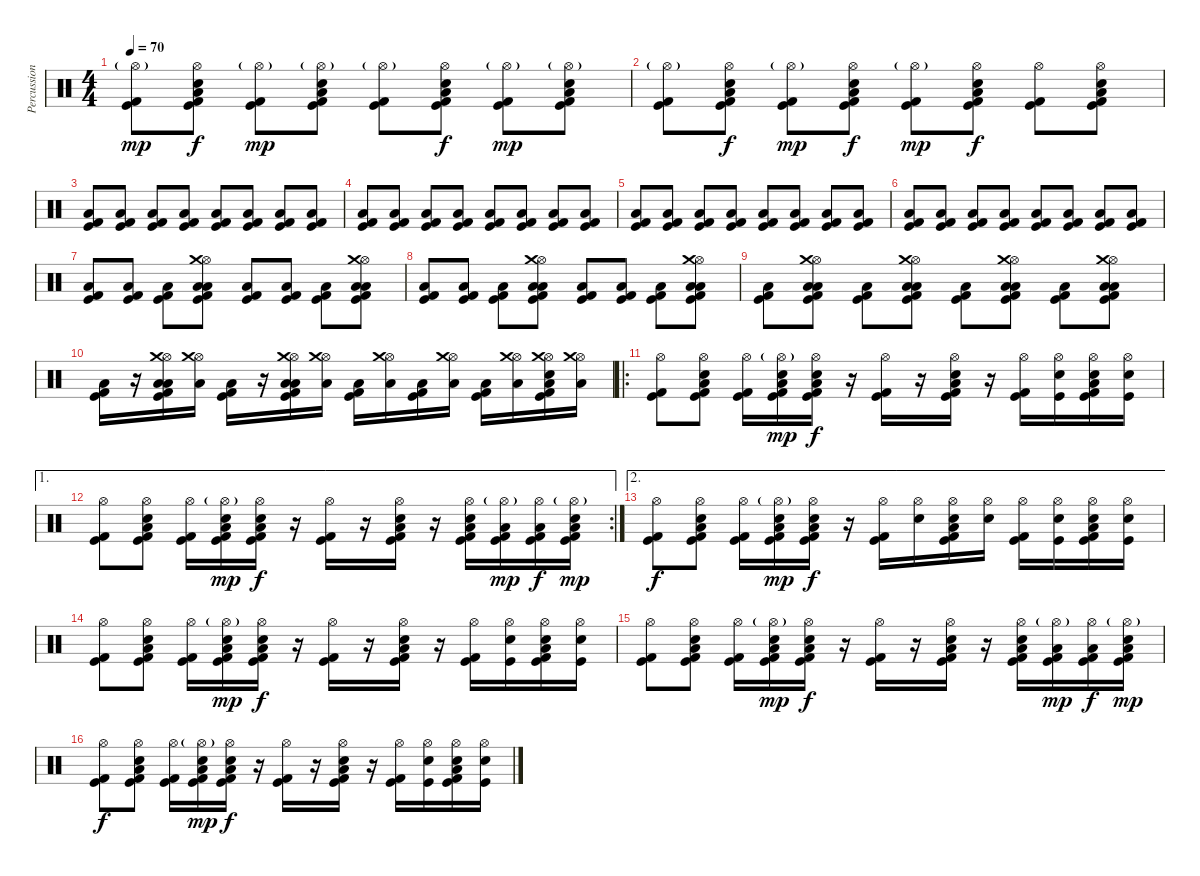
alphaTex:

\track ("Percussion" "Percussion") {instrument percussion}
\staff {score}
\articulation defaults
\ts (4 4)
\tempo 70
\clef neutral
\ks c
("Hi-Hat (open)"{g} "Kick (hit)" "Kick (hit) 2").8{dy mp} ("Hi-Hat (open)" "Snare (hit) 2" "Low Floor Tom (hit)" "Kick (hit)" "Kick (hit) 2").8{dy f} ("Hi-Hat (open)"{g} "Kick (hit)" "Kick (hit) 2").8{dy mp} ("Hi-Hat (open)"{g} "Snare (hit) 2" "Low Floor Tom (hit)" "Kick (hit)" "Kick (hit) 2").8 ("Hi-Hat (open)"{g} "Kick (hit)" "Kick (hit) 2").8 ("Hi-Hat (open)" "Snare (hit) 2" "Low Floor Tom (hit)" "Kick (hit)" "Kick (hit) 2").8{dy f} ("Hi-Hat (open)"{g} "Kick (hit)" "Kick (hit) 2").8{dy mp} ("Hi-Hat (open)"{g} "Snare (hit) 2" "Low Floor Tom (hit)" "Kick (hit)" "Kick (hit) 2").8 |
("Hi-Hat (open)"{g} "Kick (hit)" "Kick (hit) 2").8 ("Hi-Hat (open)" "Snare (hit) 2" "Low Floor Tom (hit)" "Kick (hit)" "Kick (hit) 2").8{dy f} ("Hi-Hat (open)"{g} "Kick (hit)" "Kick (hit) 2").8{dy mp} ("Hi-Hat (open)" "Snare (hit) 2" "Low Floor Tom (hit)" "Kick (hit)" "Kick (hit) 2").8{dy f} ("Hi-Hat (open)"{g} "Kick (hit)" "Kick (hit) 2").8{dy mp} ("Hi-Hat (open)" "Snare (hit) 2" "Low Floor Tom (hit)" "Kick (hit)" "Kick (hit) 2").8{dy f} ("Hi-Hat (open)" "Kick (hit)" "Kick (hit) 2").8 ("Hi-Hat (open)" "Snare (hit) 2" "Low Floor Tom (hit)" "Kick (hit)" "Kick (hit) 2").8 |
("Low Floor Tom (hit)" "Kick (hit)" "Kick (hit) 2").8 ("Low Floor Tom (hit)" "Kick (hit)" "Kick (hit) 2").8 ("Low Floor Tom (hit)" "Kick (hit)" "Kick (hit) 2").8 ("Low Floor Tom (hit)" "Kick (hit)" "Kick (hit) 2").8 ("Low Floor Tom (hit)" "Kick (hit)" "Kick (hit) 2").8 ("Low Floor Tom (hit)" "Kick (hit)" "Kick (hit) 2").8 ("Low Floor Tom (hit)" "Kick (hit)" "Kick (hit) 2").8 ("Low Floor Tom (hit)" "Kick (hit)" "Kick (hit) 2").8 |
("Low Floor Tom (hit)" "Kick (hit)" "Kick (hit) 2").8 ("Low Floor Tom (hit)" "Kick (hit)" "Kick (hit) 2").8 ("Low Floor Tom (hit)" "Kick (hit)" "Kick (hit) 2").8 ("Low Floor Tom (hit)" "Kick (hit)" "Kick (hit) 2").8 ("Low Floor Tom (hit)" "Kick (hit)" "Kick (hit) 2").8 ("Low Floor Tom (hit)" "Kick (hit)" "Kick (hit) 2").8 ("Low Floor Tom (hit)" "Kick (hit)" "Kick (hit) 2").8 ("Low Floor Tom (hit)" "Kick (hit)" "Kick (hit) 2").8 |
("Low Floor Tom (hit)" "Kick (hit)" "Kick (hit) 2").8 ("Low Floor Tom (hit)" "Kick (hit)" "Kick (hit) 2").8 ("Low Floor Tom (hit)" "Kick (hit)" "Kick (hit) 2").8 ("Low Floor Tom (hit)" "Kick (hit)" "Kick (hit) 2").8 ("Low Floor Tom (hit)" "Kick (hit)" "Kick (hit) 2").8 ("Low Floor Tom (hit)" "Kick (hit)" "Kick (hit) 2").8 ("Low Floor Tom (hit)" "Kick (hit)" "Kick (hit) 2").8 ("Low Floor Tom (hit)" "Kick (hit)" "Kick (hit) 2").8 |
("Low Floor Tom (hit)" "Kick (hit)" "Kick (hit) 2").8 ("Low Floor Tom (hit)" "Kick (hit)" "Kick (hit) 2").8 ("Low Floor Tom (hit)" "Kick (hit)" "Kick (hit) 2").8 ("Low Floor Tom (hit)" "Kick (hit)" "Kick (hit) 2").8 ("Low Floor Tom (hit)" "Kick (hit)" "Kick (hit) 2").8 ("Low Floor Tom (hit)" "Kick (hit)" "Kick (hit) 2").8 ("Low Floor Tom (hit)" "Kick (hit)" "Kick (hit) 2").8 ("Low Floor Tom (hit)" "Kick (hit)" "Kick (hit) 2").8 |
("Low Floor Tom (hit)" "Kick (hit)" "Kick (hit) 2").8 ("Low Floor Tom (hit)" "Kick (hit)" "Kick (hit) 2").8 ("Low Floor Tom (hit)" "Kick (hit)" "Kick (hit) 2").8 ("Hi-Hat (open)" "Crash medium (hit)" "Low Floor Tom (hit)" "Low Floor Tom (hit)" "Kick (hit)" "Kick (hit) 2").8 ("Low Floor Tom (hit)" "Kick (hit)" "Kick (hit) 2").8 ("Low Floor Tom (hit)" "Kick (hit)" "Kick (hit) 2").8 ("Low Floor Tom (hit)" "Kick (hit)" "Kick (hit) 2").8 ("Hi-Hat (open)" "Crash medium (hit)" "Low Floor Tom (hit)" "Low Floor Tom (hit)" "Kick (hit)" "Kick (hit) 2").8 |
("Low Floor Tom (hit)" "Kick (hit)" "Kick (hit) 2").8 ("Low Floor Tom (hit)" "Kick (hit)" "Kick (hit) 2").8 ("Low Floor Tom (hit)" "Kick (hit)" "Kick (hit) 2").8 ("Hi-Hat (open)" "Crash medium (hit)" "Low Floor Tom (hit)" "Low Floor Tom (hit)" "Kick (hit)" "Kick (hit) 2").8 ("Low Floor Tom (hit)" "Kick (hit)" "Kick (hit) 2").8 ("Low Floor Tom (hit)" "Kick (hit)" "Kick (hit) 2").8 ("Low Floor Tom (hit)" "Kick (hit)" "Kick (hit) 2").8 ("Hi-Hat (open)" "Crash medium (hit)" "Low Floor Tom (hit)" "Low Floor Tom (hit)" "Kick (hit)" "Kick (hit) 2").8 |
("Low Floor Tom (hit)" "Kick (hit)" "Kick (hit) 2").8 ("Hi-Hat (open)" "Crash medium (hit)" "Low Floor Tom (hit)" "Low Floor Tom (hit)" "Kick (hit)" "Kick (hit) 2").8 ("Low Floor Tom (hit)" "Kick (hit)" "Kick (hit) 2").8 ("Hi-Hat (open)" "Crash medium (hit)" "Low Floor Tom (hit)" "Low Floor Tom (hit)" "Kick (hit)" "Kick (hit) 2").8 ("Low Floor Tom (hit)" "Kick (hit)" "Kick (hit) 2").8 ("Hi-Hat (open)" "Crash medium (hit)" "Low Floor Tom (hit)" "Low Floor Tom (hit)" "Kick (hit)" "Kick (hit) 2").8 ("Low Floor Tom (hit)" "Kick (hit)" "Kick (hit) 2").8 ("Hi-Hat (open)" "Crash medium (hit)" "Low Floor Tom (hit)" "Low Floor Tom (hit)" "Kick (hit)" "Kick (hit) 2").8 |
("Low Floor Tom (hit)" "Kick (hit)" "Kick (hit) 2").16 r.16 ("Hi-Hat (open)" "Crash medium (hit)" "Low Floor Tom (hit)" "Low Floor Tom (hit)" "Kick (hit)" "Kick (hit) 2").16 ("Hi-Hat (open)" "Crash medium (hit)" "Low Floor Tom (hit)").16 ("Low Floor Tom (hit)" "Kick (hit)" "Kick (hit) 2").16 r.16 ("Hi-Hat (open)" "Crash medium (hit)" "Low Floor Tom (hit)" "Low Floor Tom (hit)" "Kick (hit)" "Kick (hit) 2").16 ("Hi-Hat (open)" "Crash medium (hit)" "Low Floor Tom (hit)").16 ("Low Floor Tom (hit)" "Kick (hit)" "Kick (hit) 2").16 ("Hi-Hat (open)" "Crash medium (hit)" "Low Floor Tom (hit)").16 ("Low Floor Tom (hit)" "Kick (hit)" "Kick (hit) 2").16 ("Hi-Hat (open)" "Crash medium (hit)" "Low Floor Tom (hit)").16 ("Low Floor Tom (hit)" "Kick (hit)" "Kick (hit) 2").16 ("Hi-Hat (open)" "Crash medium (hit)" "Low Floor Tom (hit)").16 ("Hi-Hat (open)" "Crash medium (hit)" "Low Floor Tom (hit)" "Snare (hit)" "Kick (hit)" "Kick (hit) 2").16 ("Hi-Hat (open)" "Crash medium (hit)" "Low Floor Tom (hit)").16 |
\ro
("Hi-Hat (open)" "Kick (hit)" "Kick (hit) 2").8 ("Hi-Hat (open)" "Snare (hit) 2" "Low Floor Tom (hit)" "Kick (hit)" "Kick (hit) 2").8 ("Hi-Hat (open)" "Kick (hit)" "Kick (hit) 2").16 ("Hi-Hat (open)"{g} "Snare (hit) 2" "Low Floor Tom (hit)" "Kick (hit)" "Kick (hit) 2").16{dy mp} ("Hi-Hat (open)" "Snare (hit) 2" "Low Floor Tom (hit)" "Kick (hit)" "Kick (hit) 2").16{dy f} r.16 ("Hi-Hat (open)" "Kick (hit)" "Kick (hit) 2").16 r.16 ("Hi-Hat (open)" "Snare (hit) 2" "Low Floor Tom (hit)" "Kick (hit)" "Kick (hit) 2").16 r.16 ("Hi-Hat (open)" "Kick (hit)" "Kick (hit) 2").16 ("Hi-Hat (open)" "Snare (hit) 2" "Kick (hit)").16 ("Hi-Hat (open)" "Snare (hit) 2" "Low Floor Tom (hit)" "Kick (hit)" "Kick (hit) 2").16 ("Hi-Hat (open)" "Snare (hit) 2" "Kick (hit)").16 |
\ae 1
\rc 2
("Hi-Hat (open)" "Kick (hit)" "Kick (hit) 2").8 ("Hi-Hat (open)" "Snare (hit) 2" "Low Floor Tom (hit)" "Kick (hit)" "Kick (hit) 2").8 ("Hi-Hat (open)" "Kick (hit)" "Kick (hit) 2").16 ("Hi-Hat (open)"{g} "Snare (hit) 2" "Low Floor Tom (hit)" "Kick (hit)" "Kick (hit) 2").16{dy mp} ("Hi-Hat (open)" "Snare (hit) 2" "Low Floor Tom (hit)" "Kick (hit)" "Kick (hit) 2").16{dy f} r.16 ("Hi-Hat (open)" "Kick (hit)" "Kick (hit) 2").16 r.16 ("Hi-Hat (open)" "Snare (hit) 2" "Low Floor Tom (hit)" "Kick (hit)" "Kick (hit) 2").16 r.16 ("Hi-Hat (open)" "Snare (hit) 2" "Low Floor Tom (hit)" "Kick (hit)" "Kick (hit) 2").16 ("Hi-Hat (open)"{g} "Low Tom (hit)" "Kick (hit)" "Kick (hit) 2").16{dy mp} ("Hi-Hat (open)" "Low Floor Tom (hit)" "Kick (hit)" "Kick (hit) 2").16{dy f} ("Hi-Hat (open)"{g} "Snare (hit) 2" "Low Floor Tom (hit)" "Kick (hit)" "Kick (hit) 2").16{dy mp} |
\ae 2
("Hi-Hat (open)" "Kick (hit)" "Kick (hit) 2").8{dy f} ("Hi-Hat (open)" "Snare (hit) 2" "Low Floor Tom (hit)" "Kick (hit)" "Kick (hit) 2").8 ("Hi-Hat (open)" "Kick (hit)" "Kick (hit) 2").16 ("Hi-Hat (open)"{g} "Snare (hit) 2" "Low Floor Tom (hit)" "Kick (hit)" "Kick (hit) 2").16{dy mp} ("Hi-Hat (open)" "Snare (hit) 2" "Low Floor Tom (hit)" "Kick (hit)" "Kick (hit) 2").16{dy f} r.16 ("Hi-Hat (open)" "Kick (hit)" "Kick (hit) 2").16 ("Hi-Hat (open)" "Snare (hit) 2").16 ("Hi-Hat (open)" "Snare (hit) 2" "Low Floor Tom (hit)" "Kick (hit)" "Kick (hit) 2").16 ("Hi-Hat (open)" "Snare (hit) 2").16 ("Hi-Hat (open)" "Kick (hit)" "Kick (hit) 2").16 ("Hi-Hat (open)" "Snare (hit) 2" "Kick (hit)").16 ("Hi-Hat (open)" "Snare (hit) 2" "Low Floor Tom (hit)" "Kick (hit)" "Kick (hit) 2").16 ("Hi-Hat (open)" "Snare (hit) 2" "Kick (hit)").16 |
("Hi-Hat (open)" "Kick (hit)" "Kick (hit) 2").8 ("Hi-Hat (open)" "Snare (hit) 2" "Low Floor Tom (hit)" "Kick (hit)" "Kick (hit) 2").8 ("Hi-Hat (open)" "Kick (hit)" "Kick (hit) 2").16 ("Hi-Hat (open)"{g} "Snare (hit) 2" "Low Floor Tom (hit)" "Kick (hit)" "Kick (hit) 2").16{dy mp} ("Hi-Hat (open)" "Snare (hit) 2" "Low Floor Tom (hit)" "Kick (hit)" "Kick (hit) 2").16{dy f} r.16 ("Hi-Hat (open)" "Kick (hit)" "Kick (hit) 2").16 r.16 ("Hi-Hat (open)" "Snare (hit) 2" "Low Floor Tom (hit)" "Kick (hit)" "Kick (hit) 2").16 r.16 ("Hi-Hat (open)" "Kick (hit)" "Kick (hit) 2").16 ("Hi-Hat (open)" "Snare (hit) 2" "Kick (hit)").16 ("Hi-Hat (open)" "Snare (hit) 2" "Low Floor Tom (hit)" "Kick (hit)" "Kick (hit) 2").16 ("Hi-Hat (open)" "Snare (hit) 2" "Kick (hit)").16 |
("Hi-Hat (open)" "Kick (hit)" "Kick (hit) 2").8 ("Hi-Hat (open)" "Snare (hit) 2" "Low Floor Tom (hit)" "Kick (hit)" "Kick (hit) 2").8 ("Hi-Hat (open)" "Kick (hit)" "Kick (hit) 2").16 ("Hi-Hat (open)"{g} "Snare (hit) 2" "Low Floor Tom (hit)" "Kick (hit)" "Kick (hit) 2").16{dy mp} ("Hi-Hat (open)" "Snare (hit) 2" "Low Floor Tom (hit)" "Kick (hit)" "Kick (hit) 2").16{dy f} r.16 ("Hi-Hat (open)" "Kick (hit)" "Kick (hit) 2").16 r.16 ("Hi-Hat (open)" "Snare (hit) 2" "Low Floor Tom (hit)" "Kick (hit)" "Kick (hit) 2").16 r.16 ("Hi-Hat (open)" "Snare (hit) 2" "Low Floor Tom (hit)" "Kick (hit)" "Kick (hit) 2").16 ("Hi-Hat (open)"{g} "Low Tom (hit)" "Kick (hit)" "Kick (hit) 2").16{dy mp} ("Hi-Hat (open)" "Low Floor Tom (hit)" "Kick (hit)" "Kick (hit) 2").16{dy f} ("Hi-Hat (open)"{g} "Snare (hit) 2" "Low Floor Tom (hit)" "Kick (hit)" "Kick (hit) 2").16{dy mp} |
("Hi-Hat (open)" "Kick (hit)" "Kick (hit) 2").8{dy f} ("Hi-Hat (open)" "Snare (hit) 2" "Low Floor Tom (hit)" "Kick (hit)" "Kick (hit) 2").8 ("Hi-Hat (open)" "Kick (hit)" "Kick (hit) 2").16 ("Hi-Hat (open)"{g} "Snare (hit) 2" "Low Floor Tom (hit)" "Kick (hit)" "Kick (hit) 2").16{dy mp} ("Hi-Hat (open)" "Snare (hit) 2" "Low Floor Tom (hit)" "Kick (hit)" "Kick (hit) 2").16{dy f} r.16 ("Hi-Hat (open)" "Kick (hit)" "Kick (hit) 2").16 r.16 ("Hi-Hat (open)" "Snare (hit) 2" "Low Floor Tom (hit)" "Kick (hit)" "Kick (hit) 2").16 r.16 ("Hi-Hat (open)" "Kick (hit)" "Kick (hit) 2").16 ("Hi-Hat (open)" "Snare (hit) 2" "Kick (hit)").16 ("Hi-Hat (open)" "Snare (hit) 2" "Low Floor Tom (hit)" "Kick (hit)" "Kick (hit) 2").16 ("Hi-Hat (open)" "Snare (hit) 2" "Kick (hit)").16
